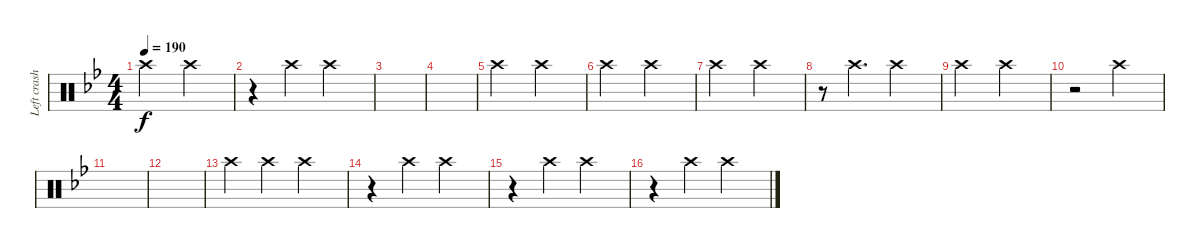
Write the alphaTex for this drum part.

\track ("Left crash" "Left crash") {instrument percussion}
\staff {score}
\articulation defaults
\ts (4 4)
\tempo 190
\clef neutral
\ks bb "Crash high (hit)".2{dy f} "Crash high (hit)".2
|
r.4 "Crash high (hit)".4 "Crash high (hit)".2 |
|
|
"Crash high (hit)".2 "Crash high (hit)".2 |
"Crash high (hit)".2 "Crash high (hit)".2 |
"Crash high (hit)".2 "Crash high (hit)".2 |
r.8 "Crash high (hit)".4{d} "Crash high (hit)".2 |
"Crash high (hit)".2 "Crash high (hit)".2 |
r.2 "Crash high (hit)".2 |
|
|
"Crash high (hit)".4 "Crash high (hit)".4 "Crash high (hit)".2 |
r.4 "Crash high (hit)".4 "Crash high (hit)".2 |
r.4 "Crash high (hit)".4 "Crash high (hit)".2 |
r.4 "Crash high (hit)".4 "Crash high (hit)".2
